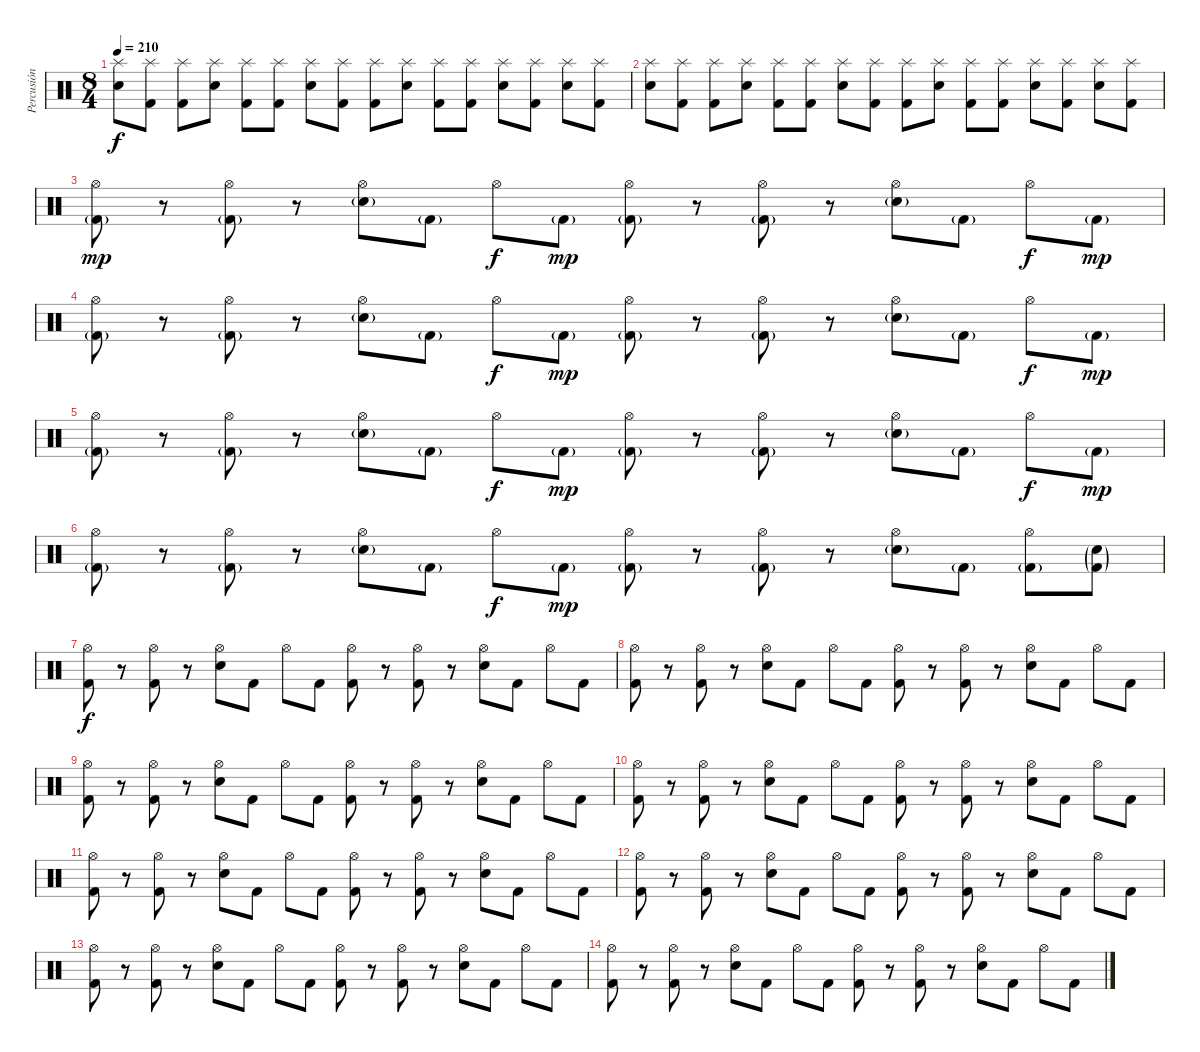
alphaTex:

\track ("Percusión" "Percusión") {instrument percussion}
\staff {score}
\articulation defaults
\ts (8 4)
\tempo 210
\clef neutral
\ks c
("Splash (hit)" "Electric Snare (hit)").8{dy f} ("Splash (hit)" "Kick (hit) 2").8 ("Splash (hit)" "Kick (hit) 2").8 ("Splash (hit)" "Electric Snare (hit)").8 ("Splash (hit)" "Kick (hit) 2").8 ("Splash (hit)" "Kick (hit) 2").8 ("Splash (hit)" "Electric Snare (hit)").8 ("Splash (hit)" "Kick (hit) 2").8 ("Splash (hit)" "Kick (hit) 2").8 ("Splash (hit)" "Electric Snare (hit)").8 ("Splash (hit)" "Kick (hit) 2").8 ("Splash (hit)" "Kick (hit) 2").8 ("Splash (hit)" "Electric Snare (hit)").8 ("Splash (hit)" "Kick (hit) 2").8 ("Splash (hit)" "Electric Snare (hit)").8 ("Splash (hit)" "Kick (hit) 2").8 |
("Splash (hit)" "Electric Snare (hit)").8 ("Splash (hit)" "Kick (hit) 2").8 ("Splash (hit)" "Kick (hit) 2").8 ("Splash (hit)" "Electric Snare (hit)").8 ("Splash (hit)" "Kick (hit) 2").8 ("Splash (hit)" "Kick (hit) 2").8 ("Splash (hit)" "Electric Snare (hit)").8 ("Splash (hit)" "Kick (hit) 2").8 ("Splash (hit)" "Kick (hit) 2").8 ("Splash (hit)" "Electric Snare (hit)").8 ("Splash (hit)" "Kick (hit) 2").8 ("Splash (hit)" "Kick (hit) 2").8 ("Splash (hit)" "Electric Snare (hit)").8 ("Splash (hit)" "Kick (hit) 2").8 ("Splash (hit)" "Electric Snare (hit)").8 ("Splash (hit)" "Kick (hit) 2").8 |
("Hi-Hat (open)" "Kick (hit) 2"{g}).8{dy mp} r.8 ("Hi-Hat (open)" "Kick (hit) 2"{g}).8 r.8 ("Hi-Hat (open)" "Electric Snare (hit)"{g}).8 "Kick (hit) 2"{g}.8 "Hi-Hat (open)".8{dy f} "Kick (hit) 2"{g}.8{dy mp} ("Hi-Hat (open)" "Kick (hit) 2"{g}).8 r.8 ("Hi-Hat (open)" "Kick (hit) 2"{g}).8 r.8 ("Hi-Hat (open)" "Electric Snare (hit)"{g}).8 "Kick (hit) 2"{g}.8 "Hi-Hat (open)".8{dy f} "Kick (hit) 2"{g}.8{dy mp} |
("Hi-Hat (open)" "Kick (hit) 2"{g}).8 r.8 ("Hi-Hat (open)" "Kick (hit) 2"{g}).8 r.8 ("Hi-Hat (open)" "Electric Snare (hit)"{g}).8 "Kick (hit) 2"{g}.8 "Hi-Hat (open)".8{dy f} "Kick (hit) 2"{g}.8{dy mp} ("Hi-Hat (open)" "Kick (hit) 2"{g}).8 r.8 ("Hi-Hat (open)" "Kick (hit) 2"{g}).8 r.8 ("Hi-Hat (open)" "Electric Snare (hit)"{g}).8 "Kick (hit) 2"{g}.8 "Hi-Hat (open)".8{dy f} "Kick (hit) 2"{g}.8{dy mp} |
("Hi-Hat (open)" "Kick (hit) 2"{g}).8 r.8 ("Hi-Hat (open)" "Kick (hit) 2"{g}).8 r.8 ("Hi-Hat (open)" "Electric Snare (hit)"{g}).8 "Kick (hit) 2"{g}.8 "Hi-Hat (open)".8{dy f} "Kick (hit) 2"{g}.8{dy mp} ("Hi-Hat (open)" "Kick (hit) 2"{g}).8 r.8 ("Hi-Hat (open)" "Kick (hit) 2"{g}).8 r.8 ("Hi-Hat (open)" "Electric Snare (hit)"{g}).8 "Kick (hit) 2"{g}.8 "Hi-Hat (open)".8{dy f} "Kick (hit) 2"{g}.8{dy mp} |
("Hi-Hat (open)" "Kick (hit) 2"{g}).8 r.8 ("Hi-Hat (open)" "Kick (hit) 2"{g}).8 r.8 ("Hi-Hat (open)" "Electric Snare (hit)"{g}).8 "Kick (hit) 2"{g}.8 "Hi-Hat (open)".8{dy f} "Kick (hit) 2"{g}.8{dy mp} ("Hi-Hat (open)" "Kick (hit) 2"{g}).8 r.8 ("Hi-Hat (open)" "Kick (hit) 2"{g}).8 r.8 ("Hi-Hat (open)" "Electric Snare (hit)"{g}).8 "Kick (hit) 2"{g}.8 ("Hi-Hat (open)" "Kick (hit) 2"{g}).8 ("Electric Snare (hit)"{g} "Kick (hit) 2"{g}).8 |
("Hi-Hat (open)" "Kick (hit) 2").8{dy f} r.8 ("Hi-Hat (open)" "Kick (hit) 2").8 r.8 ("Hi-Hat (open)" "Electric Snare (hit)").8 "Kick (hit) 2".8 "Hi-Hat (open)".8 "Kick (hit) 2".8 ("Hi-Hat (open)" "Kick (hit) 2").8 r.8 ("Hi-Hat (open)" "Kick (hit) 2").8 r.8 ("Hi-Hat (open)" "Electric Snare (hit)").8 "Kick (hit) 2".8 "Hi-Hat (open)".8 "Kick (hit) 2".8 |
("Hi-Hat (open)" "Kick (hit) 2").8 r.8 ("Hi-Hat (open)" "Kick (hit) 2").8 r.8 ("Hi-Hat (open)" "Electric Snare (hit)").8 "Kick (hit) 2".8 "Hi-Hat (open)".8 "Kick (hit) 2".8 ("Hi-Hat (open)" "Kick (hit) 2").8 r.8 ("Hi-Hat (open)" "Kick (hit) 2").8 r.8 ("Hi-Hat (open)" "Electric Snare (hit)").8 "Kick (hit) 2".8 "Hi-Hat (open)".8 "Kick (hit) 2".8 |
("Hi-Hat (open)" "Kick (hit) 2").8 r.8 ("Hi-Hat (open)" "Kick (hit) 2").8 r.8 ("Hi-Hat (open)" "Electric Snare (hit)").8 "Kick (hit) 2".8 "Hi-Hat (open)".8 "Kick (hit) 2".8 ("Hi-Hat (open)" "Kick (hit) 2").8 r.8 ("Hi-Hat (open)" "Kick (hit) 2").8 r.8 ("Hi-Hat (open)" "Electric Snare (hit)").8 "Kick (hit) 2".8 "Hi-Hat (open)".8 "Kick (hit) 2".8 |
("Hi-Hat (open)" "Kick (hit) 2").8 r.8 ("Hi-Hat (open)" "Kick (hit) 2").8 r.8 ("Hi-Hat (open)" "Electric Snare (hit)").8 "Kick (hit) 2".8 "Hi-Hat (open)".8 "Kick (hit) 2".8 ("Hi-Hat (open)" "Kick (hit) 2").8 r.8 ("Hi-Hat (open)" "Kick (hit) 2").8 r.8 ("Hi-Hat (open)" "Electric Snare (hit)").8 "Kick (hit) 2".8 "Hi-Hat (open)".8 "Kick (hit) 2".8 |
("Hi-Hat (open)" "Kick (hit) 2").8 r.8 ("Hi-Hat (open)" "Kick (hit) 2").8 r.8 ("Hi-Hat (open)" "Electric Snare (hit)").8 "Kick (hit) 2".8 "Hi-Hat (open)".8 "Kick (hit) 2".8 ("Hi-Hat (open)" "Kick (hit) 2").8 r.8 ("Hi-Hat (open)" "Kick (hit) 2").8 r.8 ("Hi-Hat (open)" "Electric Snare (hit)").8 "Kick (hit) 2".8 "Hi-Hat (open)".8 "Kick (hit) 2".8 |
("Hi-Hat (open)" "Kick (hit) 2").8 r.8 ("Hi-Hat (open)" "Kick (hit) 2").8 r.8 ("Hi-Hat (open)" "Electric Snare (hit)").8 "Kick (hit) 2".8 "Hi-Hat (open)".8 "Kick (hit) 2".8 ("Hi-Hat (open)" "Kick (hit) 2").8 r.8 ("Hi-Hat (open)" "Kick (hit) 2").8 r.8 ("Hi-Hat (open)" "Electric Snare (hit)").8 "Kick (hit) 2".8 "Hi-Hat (open)".8 "Kick (hit) 2".8 |
("Hi-Hat (open)" "Kick (hit) 2").8 r.8 ("Hi-Hat (open)" "Kick (hit) 2").8 r.8 ("Hi-Hat (open)" "Electric Snare (hit)").8 "Kick (hit) 2".8 "Hi-Hat (open)".8 "Kick (hit) 2".8 ("Hi-Hat (open)" "Kick (hit) 2").8 r.8 ("Hi-Hat (open)" "Kick (hit) 2").8 r.8 ("Hi-Hat (open)" "Electric Snare (hit)").8 "Kick (hit) 2".8 "Hi-Hat (open)".8 "Kick (hit) 2".8 |
("Hi-Hat (open)" "Kick (hit) 2").8 r.8 ("Hi-Hat (open)" "Kick (hit) 2").8 r.8 ("Hi-Hat (open)" "Electric Snare (hit)").8 "Kick (hit) 2".8 "Hi-Hat (open)".8 "Kick (hit) 2".8 ("Hi-Hat (open)" "Kick (hit) 2").8 r.8 ("Hi-Hat (open)" "Kick (hit) 2").8 r.8 ("Hi-Hat (open)" "Electric Snare (hit)").8 "Kick (hit) 2".8 "Hi-Hat (open)".8 "Kick (hit) 2".8
